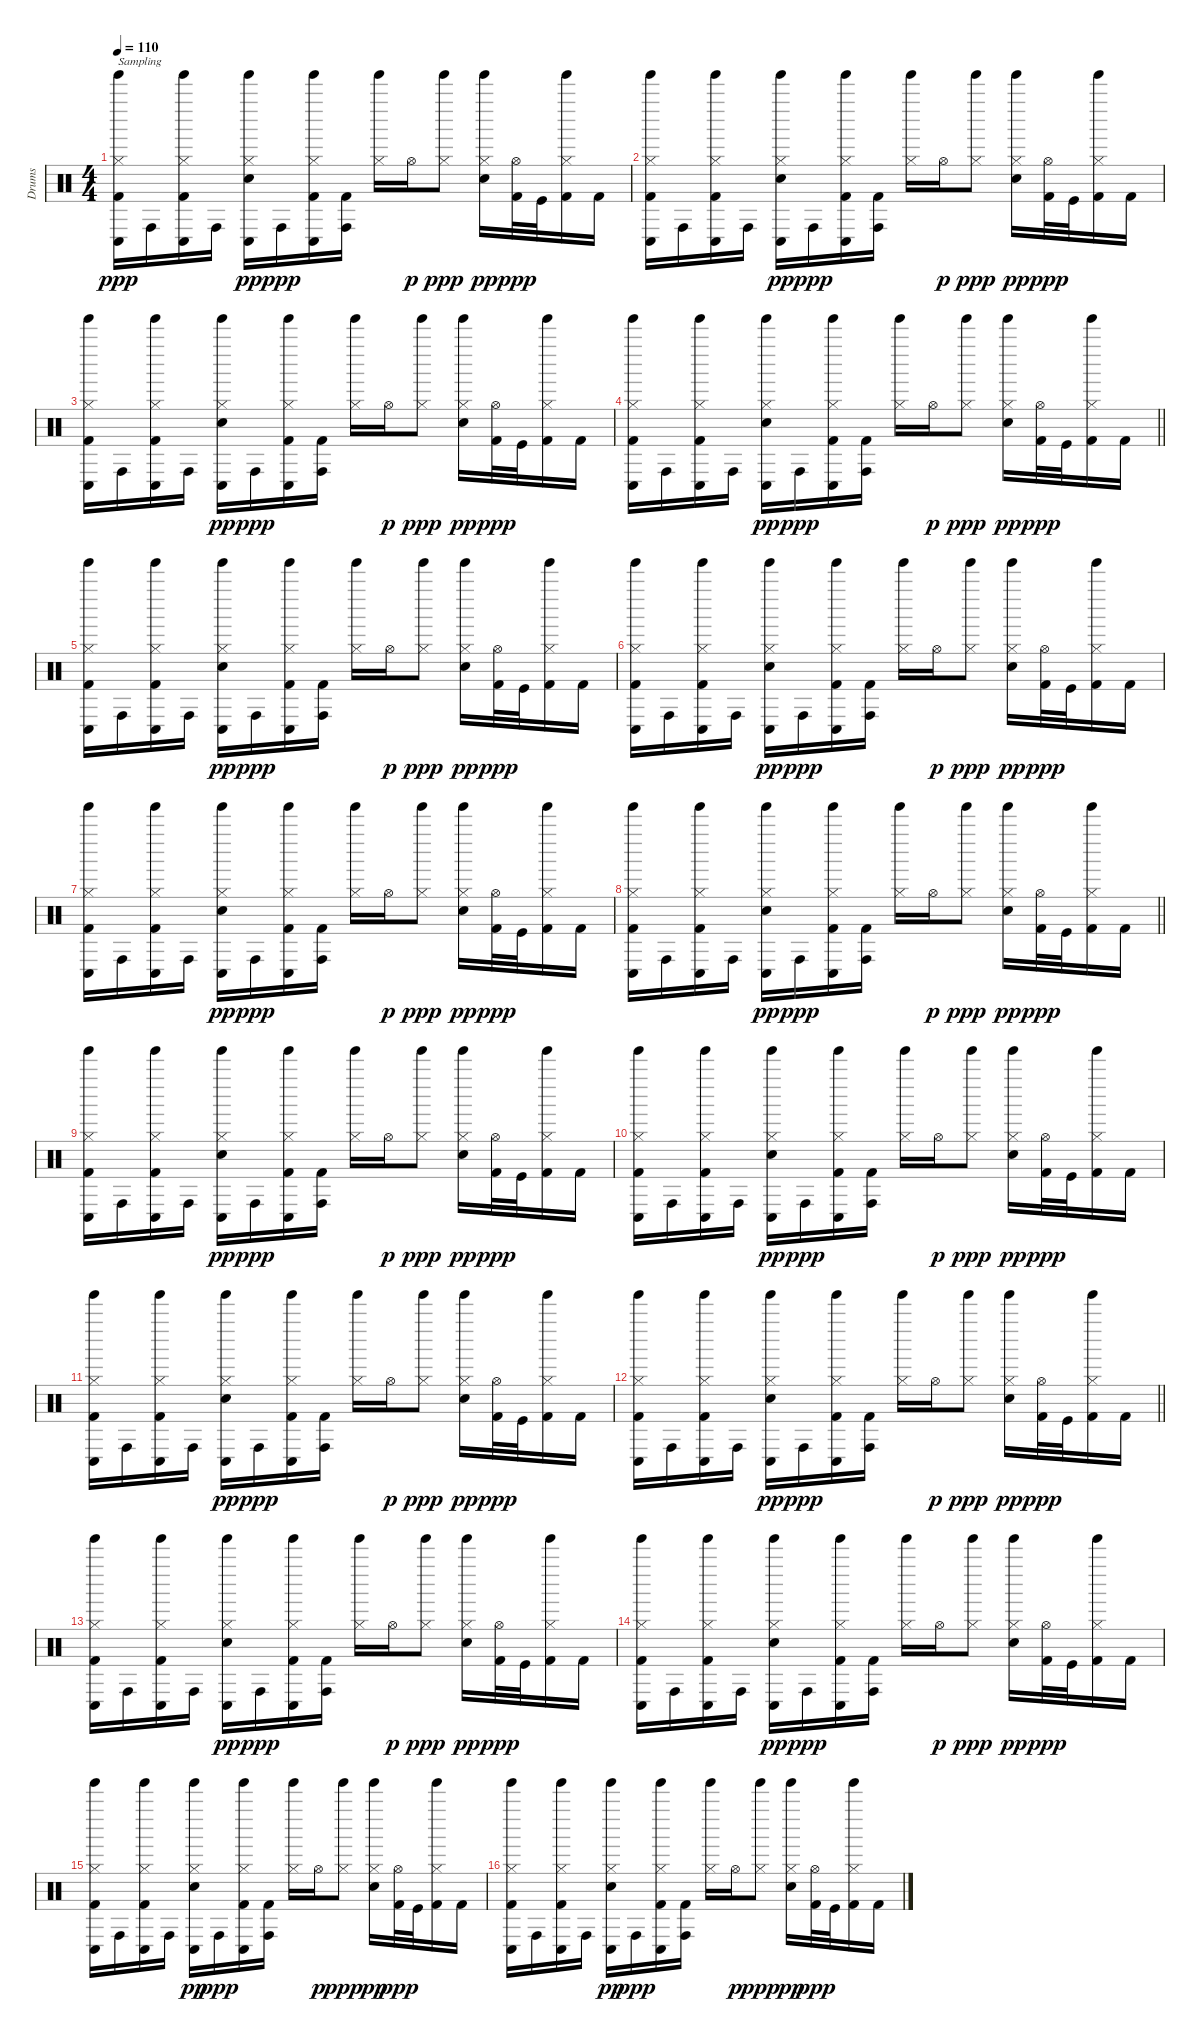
\track ("Drums" "Drums") {instrument percussion}
\staff {score}
\articulation defaults
\ts (4 4)
\tempo 110
\clef neutral
\ks c
("Tinkle Bell (hit)" "Conga low (hit)" "Hi-Hat (closed)" "Kick (hit) 2").16{txt "Sampling" dy ppp} "Conga high (hit)".16 ("Tinkle Bell (hit)" "Conga low (hit)" "Hi-Hat (closed)" "Kick (hit) 2").16 "Conga high (hit)".16 ("Tinkle Bell (hit)" "Conga low (hit)" "Hi-Hat (closed)" "Snare (hit) 2").16{dy pp} "Conga high (hit)".16{dy ppp} ("Tinkle Bell (hit)" "Conga low (hit)" "Hi-Hat (closed)" "Kick (hit) 2").16 ("Conga high (hit)" "Kick (hit) 2").16 ("Tinkle Bell (hit)" "Hi-Hat (closed)").16 "Hi-Hat (open)".16{dy p} ("Tinkle Bell (hit)" "Hi-Hat (closed)").8{dy ppp} ("Tinkle Bell (hit)" "Hi-Hat (closed)" "Snare (hit) 2").16{dy pp} ("Hi-Hat (open)" "Kick (hit) 2").32{dy ppp} "Kick (hit)".32 ("Tinkle Bell (hit)" "Hi-Hat (closed)" "Kick (hit) 2").16 "Kick (hit) 2".16 |
("Tinkle Bell (hit)" "Conga low (hit)" "Hi-Hat (closed)" "Kick (hit) 2").16 "Conga high (hit)".16 ("Tinkle Bell (hit)" "Conga low (hit)" "Hi-Hat (closed)" "Kick (hit) 2").16 "Conga high (hit)".16 ("Tinkle Bell (hit)" "Conga low (hit)" "Hi-Hat (closed)" "Snare (hit) 2").16{dy pp} "Conga high (hit)".16{dy ppp} ("Tinkle Bell (hit)" "Conga low (hit)" "Hi-Hat (closed)" "Kick (hit) 2").16 ("Conga high (hit)" "Kick (hit) 2").16 ("Tinkle Bell (hit)" "Hi-Hat (closed)").16 "Hi-Hat (open)".16{dy p} ("Tinkle Bell (hit)" "Hi-Hat (closed)").8{dy ppp} ("Tinkle Bell (hit)" "Hi-Hat (closed)" "Snare (hit) 2").16{dy pp} ("Hi-Hat (open)" "Kick (hit) 2").32{dy ppp} "Kick (hit)".32 ("Tinkle Bell (hit)" "Hi-Hat (closed)" "Kick (hit) 2").16 "Kick (hit) 2".16 |
("Tinkle Bell (hit)" "Conga low (hit)" "Hi-Hat (closed)" "Kick (hit) 2").16 "Conga high (hit)".16 ("Tinkle Bell (hit)" "Conga low (hit)" "Hi-Hat (closed)" "Kick (hit) 2").16 "Conga high (hit)".16 ("Tinkle Bell (hit)" "Conga low (hit)" "Hi-Hat (closed)" "Snare (hit) 2").16{dy pp} "Conga high (hit)".16{dy ppp} ("Tinkle Bell (hit)" "Conga low (hit)" "Hi-Hat (closed)" "Kick (hit) 2").16 ("Conga high (hit)" "Kick (hit) 2").16 ("Tinkle Bell (hit)" "Hi-Hat (closed)").16 "Hi-Hat (open)".16{dy p} ("Tinkle Bell (hit)" "Hi-Hat (closed)").8{dy ppp} ("Tinkle Bell (hit)" "Hi-Hat (closed)" "Snare (hit) 2").16{dy pp} ("Hi-Hat (open)" "Kick (hit) 2").32{dy ppp} "Kick (hit)".32 ("Tinkle Bell (hit)" "Hi-Hat (closed)" "Kick (hit) 2").16 "Kick (hit) 2".16 |
\barLineRight lightlight
("Tinkle Bell (hit)" "Conga low (hit)" "Hi-Hat (closed)" "Kick (hit) 2").16 "Conga high (hit)".16 ("Tinkle Bell (hit)" "Conga low (hit)" "Hi-Hat (closed)" "Kick (hit) 2").16 "Conga high (hit)".16 ("Tinkle Bell (hit)" "Conga low (hit)" "Hi-Hat (closed)" "Snare (hit) 2").16{dy pp} "Conga high (hit)".16{dy ppp} ("Tinkle Bell (hit)" "Conga low (hit)" "Hi-Hat (closed)" "Kick (hit) 2").16 ("Conga high (hit)" "Kick (hit) 2").16 ("Tinkle Bell (hit)" "Hi-Hat (closed)").16 "Hi-Hat (open)".16{dy p} ("Tinkle Bell (hit)" "Hi-Hat (closed)").8{dy ppp} ("Tinkle Bell (hit)" "Hi-Hat (closed)" "Snare (hit) 2").16{dy pp} ("Hi-Hat (open)" "Kick (hit) 2").32{dy ppp} "Kick (hit)".32 ("Tinkle Bell (hit)" "Hi-Hat (closed)" "Kick (hit) 2").16 "Kick (hit) 2".16 |
("Tinkle Bell (hit)" "Conga low (hit)" "Hi-Hat (closed)" "Kick (hit) 2").16 "Conga high (hit)".16 ("Tinkle Bell (hit)" "Conga low (hit)" "Hi-Hat (closed)" "Kick (hit) 2").16 "Conga high (hit)".16 ("Tinkle Bell (hit)" "Conga low (hit)" "Hi-Hat (closed)" "Snare (hit) 2").16{dy pp} "Conga high (hit)".16{dy ppp} ("Tinkle Bell (hit)" "Conga low (hit)" "Hi-Hat (closed)" "Kick (hit) 2").16 ("Conga high (hit)" "Kick (hit) 2").16 ("Tinkle Bell (hit)" "Hi-Hat (closed)").16 "Hi-Hat (open)".16{dy p} ("Tinkle Bell (hit)" "Hi-Hat (closed)").8{dy ppp} ("Tinkle Bell (hit)" "Hi-Hat (closed)" "Snare (hit) 2").16{dy pp} ("Hi-Hat (open)" "Kick (hit) 2").32{dy ppp} "Kick (hit)".32 ("Tinkle Bell (hit)" "Hi-Hat (closed)" "Kick (hit) 2").16 "Kick (hit) 2".16 |
("Tinkle Bell (hit)" "Conga low (hit)" "Hi-Hat (closed)" "Kick (hit) 2").16 "Conga high (hit)".16 ("Tinkle Bell (hit)" "Conga low (hit)" "Hi-Hat (closed)" "Kick (hit) 2").16 "Conga high (hit)".16 ("Tinkle Bell (hit)" "Conga low (hit)" "Hi-Hat (closed)" "Snare (hit) 2").16{dy pp} "Conga high (hit)".16{dy ppp} ("Tinkle Bell (hit)" "Conga low (hit)" "Hi-Hat (closed)" "Kick (hit) 2").16 ("Conga high (hit)" "Kick (hit) 2").16 ("Tinkle Bell (hit)" "Hi-Hat (closed)").16 "Hi-Hat (open)".16{dy p} ("Tinkle Bell (hit)" "Hi-Hat (closed)").8{dy ppp} ("Tinkle Bell (hit)" "Hi-Hat (closed)" "Snare (hit) 2").16{dy pp} ("Hi-Hat (open)" "Kick (hit) 2").32{dy ppp} "Kick (hit)".32 ("Tinkle Bell (hit)" "Hi-Hat (closed)" "Kick (hit) 2").16 "Kick (hit) 2".16 |
("Tinkle Bell (hit)" "Conga low (hit)" "Hi-Hat (closed)" "Kick (hit) 2").16 "Conga high (hit)".16 ("Tinkle Bell (hit)" "Conga low (hit)" "Hi-Hat (closed)" "Kick (hit) 2").16 "Conga high (hit)".16 ("Tinkle Bell (hit)" "Conga low (hit)" "Hi-Hat (closed)" "Snare (hit) 2").16{dy pp} "Conga high (hit)".16{dy ppp} ("Tinkle Bell (hit)" "Conga low (hit)" "Hi-Hat (closed)" "Kick (hit) 2").16 ("Conga high (hit)" "Kick (hit) 2").16 ("Tinkle Bell (hit)" "Hi-Hat (closed)").16 "Hi-Hat (open)".16{dy p} ("Tinkle Bell (hit)" "Hi-Hat (closed)").8{dy ppp} ("Tinkle Bell (hit)" "Hi-Hat (closed)" "Snare (hit) 2").16{dy pp} ("Hi-Hat (open)" "Kick (hit) 2").32{dy ppp} "Kick (hit)".32 ("Tinkle Bell (hit)" "Hi-Hat (closed)" "Kick (hit) 2").16 "Kick (hit) 2".16 |
\barLineRight lightlight
("Tinkle Bell (hit)" "Conga low (hit)" "Hi-Hat (closed)" "Kick (hit) 2").16 "Conga high (hit)".16 ("Tinkle Bell (hit)" "Conga low (hit)" "Hi-Hat (closed)" "Kick (hit) 2").16 "Conga high (hit)".16 ("Tinkle Bell (hit)" "Conga low (hit)" "Hi-Hat (closed)" "Snare (hit) 2").16{dy pp} "Conga high (hit)".16{dy ppp} ("Tinkle Bell (hit)" "Conga low (hit)" "Hi-Hat (closed)" "Kick (hit) 2").16 ("Conga high (hit)" "Kick (hit) 2").16 ("Tinkle Bell (hit)" "Hi-Hat (closed)").16 "Hi-Hat (open)".16{dy p} ("Tinkle Bell (hit)" "Hi-Hat (closed)").8{dy ppp} ("Tinkle Bell (hit)" "Hi-Hat (closed)" "Snare (hit) 2").16{dy pp} ("Hi-Hat (open)" "Kick (hit) 2").32{dy ppp} "Kick (hit)".32 ("Tinkle Bell (hit)" "Hi-Hat (closed)" "Kick (hit) 2").16 "Kick (hit) 2".16 |
("Tinkle Bell (hit)" "Conga low (hit)" "Hi-Hat (closed)" "Kick (hit) 2").16 "Conga high (hit)".16 ("Tinkle Bell (hit)" "Conga low (hit)" "Hi-Hat (closed)" "Kick (hit) 2").16 "Conga high (hit)".16 ("Tinkle Bell (hit)" "Conga low (hit)" "Hi-Hat (closed)" "Snare (hit) 2").16{dy pp} "Conga high (hit)".16{dy ppp} ("Tinkle Bell (hit)" "Conga low (hit)" "Hi-Hat (closed)" "Kick (hit) 2").16 ("Conga high (hit)" "Kick (hit) 2").16 ("Tinkle Bell (hit)" "Hi-Hat (closed)").16 "Hi-Hat (open)".16{dy p} ("Tinkle Bell (hit)" "Hi-Hat (closed)").8{dy ppp} ("Tinkle Bell (hit)" "Hi-Hat (closed)" "Snare (hit) 2").16{dy pp} ("Hi-Hat (open)" "Kick (hit) 2").32{dy ppp} "Kick (hit)".32 ("Tinkle Bell (hit)" "Hi-Hat (closed)" "Kick (hit) 2").16 "Kick (hit) 2".16 |
("Tinkle Bell (hit)" "Conga low (hit)" "Hi-Hat (closed)" "Kick (hit) 2").16 "Conga high (hit)".16 ("Tinkle Bell (hit)" "Conga low (hit)" "Hi-Hat (closed)" "Kick (hit) 2").16 "Conga high (hit)".16 ("Tinkle Bell (hit)" "Conga low (hit)" "Hi-Hat (closed)" "Snare (hit) 2").16{dy pp} "Conga high (hit)".16{dy ppp} ("Tinkle Bell (hit)" "Conga low (hit)" "Hi-Hat (closed)" "Kick (hit) 2").16 ("Conga high (hit)" "Kick (hit) 2").16 ("Tinkle Bell (hit)" "Hi-Hat (closed)").16 "Hi-Hat (open)".16{dy p} ("Tinkle Bell (hit)" "Hi-Hat (closed)").8{dy ppp} ("Tinkle Bell (hit)" "Hi-Hat (closed)" "Snare (hit) 2").16{dy pp} ("Hi-Hat (open)" "Kick (hit) 2").32{dy ppp} "Kick (hit)".32 ("Tinkle Bell (hit)" "Hi-Hat (closed)" "Kick (hit) 2").16 "Kick (hit) 2".16 |
("Tinkle Bell (hit)" "Conga low (hit)" "Hi-Hat (closed)" "Kick (hit) 2").16 "Conga high (hit)".16 ("Tinkle Bell (hit)" "Conga low (hit)" "Hi-Hat (closed)" "Kick (hit) 2").16 "Conga high (hit)".16 ("Tinkle Bell (hit)" "Conga low (hit)" "Hi-Hat (closed)" "Snare (hit) 2").16{dy pp} "Conga high (hit)".16{dy ppp} ("Tinkle Bell (hit)" "Conga low (hit)" "Hi-Hat (closed)" "Kick (hit) 2").16 ("Conga high (hit)" "Kick (hit) 2").16 ("Tinkle Bell (hit)" "Hi-Hat (closed)").16 "Hi-Hat (open)".16{dy p} ("Tinkle Bell (hit)" "Hi-Hat (closed)").8{dy ppp} ("Tinkle Bell (hit)" "Hi-Hat (closed)" "Snare (hit) 2").16{dy pp} ("Hi-Hat (open)" "Kick (hit) 2").32{dy ppp} "Kick (hit)".32 ("Tinkle Bell (hit)" "Hi-Hat (closed)" "Kick (hit) 2").16 "Kick (hit) 2".16 |
\barLineRight lightlight
("Tinkle Bell (hit)" "Conga low (hit)" "Hi-Hat (closed)" "Kick (hit) 2").16 "Conga high (hit)".16 ("Tinkle Bell (hit)" "Conga low (hit)" "Hi-Hat (closed)" "Kick (hit) 2").16 "Conga high (hit)".16 ("Tinkle Bell (hit)" "Conga low (hit)" "Hi-Hat (closed)" "Snare (hit) 2").16{dy pp} "Conga high (hit)".16{dy ppp} ("Tinkle Bell (hit)" "Conga low (hit)" "Hi-Hat (closed)" "Kick (hit) 2").16 ("Conga high (hit)" "Kick (hit) 2").16 ("Tinkle Bell (hit)" "Hi-Hat (closed)").16 "Hi-Hat (open)".16{dy p} ("Tinkle Bell (hit)" "Hi-Hat (closed)").8{dy ppp} ("Tinkle Bell (hit)" "Hi-Hat (closed)" "Snare (hit) 2").16{dy pp} ("Hi-Hat (open)" "Kick (hit) 2").32{dy ppp} "Kick (hit)".32 ("Tinkle Bell (hit)" "Hi-Hat (closed)" "Kick (hit) 2").16 "Kick (hit) 2".16 |
("Tinkle Bell (hit)" "Conga low (hit)" "Hi-Hat (closed)" "Kick (hit) 2").16 "Conga high (hit)".16 ("Tinkle Bell (hit)" "Conga low (hit)" "Hi-Hat (closed)" "Kick (hit) 2").16 "Conga high (hit)".16 ("Tinkle Bell (hit)" "Conga low (hit)" "Hi-Hat (closed)" "Snare (hit) 2").16{dy pp} "Conga high (hit)".16{dy ppp} ("Tinkle Bell (hit)" "Conga low (hit)" "Hi-Hat (closed)" "Kick (hit) 2").16 ("Conga high (hit)" "Kick (hit) 2").16 ("Tinkle Bell (hit)" "Hi-Hat (closed)").16 "Hi-Hat (open)".16{dy p} ("Tinkle Bell (hit)" "Hi-Hat (closed)").8{dy ppp} ("Tinkle Bell (hit)" "Hi-Hat (closed)" "Snare (hit) 2").16{dy pp} ("Hi-Hat (open)" "Kick (hit) 2").32{dy ppp} "Kick (hit)".32 ("Tinkle Bell (hit)" "Hi-Hat (closed)" "Kick (hit) 2").16 "Kick (hit) 2".16 |
("Tinkle Bell (hit)" "Conga low (hit)" "Hi-Hat (closed)" "Kick (hit) 2").16 "Conga high (hit)".16 ("Tinkle Bell (hit)" "Conga low (hit)" "Hi-Hat (closed)" "Kick (hit) 2").16 "Conga high (hit)".16 ("Tinkle Bell (hit)" "Conga low (hit)" "Hi-Hat (closed)" "Snare (hit) 2").16{dy pp} "Conga high (hit)".16{dy ppp} ("Tinkle Bell (hit)" "Conga low (hit)" "Hi-Hat (closed)" "Kick (hit) 2").16 ("Conga high (hit)" "Kick (hit) 2").16 ("Tinkle Bell (hit)" "Hi-Hat (closed)").16 "Hi-Hat (open)".16{dy p} ("Tinkle Bell (hit)" "Hi-Hat (closed)").8{dy ppp} ("Tinkle Bell (hit)" "Hi-Hat (closed)" "Snare (hit) 2").16{dy pp} ("Hi-Hat (open)" "Kick (hit) 2").32{dy ppp} "Kick (hit)".32 ("Tinkle Bell (hit)" "Hi-Hat (closed)" "Kick (hit) 2").16 "Kick (hit) 2".16 |
("Tinkle Bell (hit)" "Conga low (hit)" "Hi-Hat (closed)" "Kick (hit) 2").16 "Conga high (hit)".16 ("Tinkle Bell (hit)" "Conga low (hit)" "Hi-Hat (closed)" "Kick (hit) 2").16 "Conga high (hit)".16 ("Tinkle Bell (hit)" "Conga low (hit)" "Hi-Hat (closed)" "Snare (hit) 2").16{dy pp} "Conga high (hit)".16{dy ppp} ("Tinkle Bell (hit)" "Conga low (hit)" "Hi-Hat (closed)" "Kick (hit) 2").16 ("Conga high (hit)" "Kick (hit) 2").16 ("Tinkle Bell (hit)" "Hi-Hat (closed)").16 "Hi-Hat (open)".16{dy p} ("Tinkle Bell (hit)" "Hi-Hat (closed)").8{dy ppp} ("Tinkle Bell (hit)" "Hi-Hat (closed)" "Snare (hit) 2").16{dy pp} ("Hi-Hat (open)" "Kick (hit) 2").32{dy ppp} "Kick (hit)".32 ("Tinkle Bell (hit)" "Hi-Hat (closed)" "Kick (hit) 2").16 "Kick (hit) 2".16 |
("Tinkle Bell (hit)" "Conga low (hit)" "Hi-Hat (closed)" "Kick (hit) 2").16 "Conga high (hit)".16 ("Tinkle Bell (hit)" "Conga low (hit)" "Hi-Hat (closed)" "Kick (hit) 2").16 "Conga high (hit)".16 ("Tinkle Bell (hit)" "Conga low (hit)" "Hi-Hat (closed)" "Snare (hit) 2").16{dy pp} "Conga high (hit)".16{dy ppp} ("Tinkle Bell (hit)" "Conga low (hit)" "Hi-Hat (closed)" "Kick (hit) 2").16 ("Conga high (hit)" "Kick (hit) 2").16 ("Tinkle Bell (hit)" "Hi-Hat (closed)").16 "Hi-Hat (open)".16{dy p} ("Tinkle Bell (hit)" "Hi-Hat (closed)").8{dy ppp} ("Tinkle Bell (hit)" "Hi-Hat (closed)" "Snare (hit) 2").16{dy pp} ("Hi-Hat (open)" "Kick (hit) 2").32{dy ppp} "Kick (hit)".32 ("Tinkle Bell (hit)" "Hi-Hat (closed)" "Kick (hit) 2").16 "Kick (hit) 2".16
